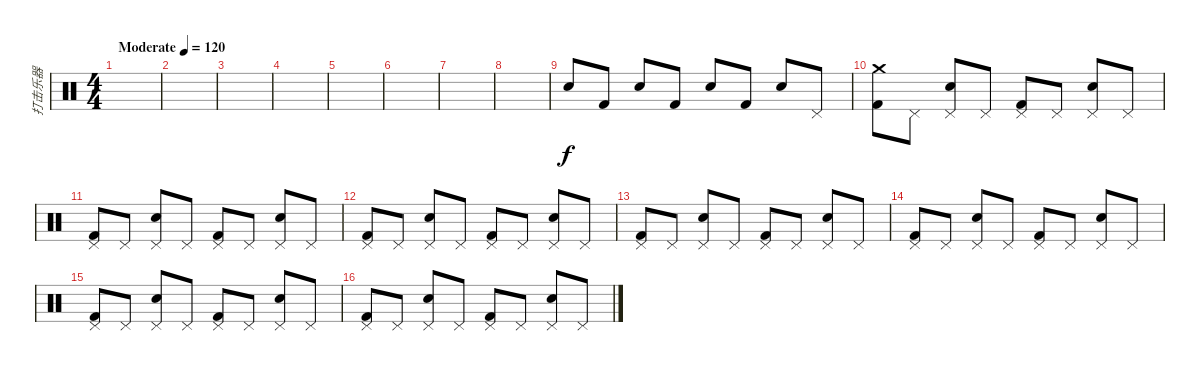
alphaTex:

\track ("打击乐器" "打击乐器") {instrument percussion}
\staff {score}
\articulation defaults
\ts (4 4)
\tempo (120 "Moderate")
\clef neutral
\ks c
|
|
|
|
|
|
|
|
"Electric Snare (hit)".8 "Kick (hit) 2".8 "Electric Snare (hit)".8 "Kick (hit) 2".8 "Electric Snare (hit)".8 "Kick (hit) 2".8 "Electric Snare (hit)".8 "Pedal Hi-Hat (hit)".8 |
("Crash medium (hit)" "Kick (hit) 2").8 "Pedal Hi-Hat (hit)".8 ("Pedal Hi-Hat (hit)" "Electric Snare (hit)").8 "Pedal Hi-Hat (hit)".8 ("Pedal Hi-Hat (hit)" "Kick (hit) 2").8 "Pedal Hi-Hat (hit)".8 ("Pedal Hi-Hat (hit)" "Electric Snare (hit)").8 "Pedal Hi-Hat (hit)".8 |
("Pedal Hi-Hat (hit)" "Kick (hit) 2").8 "Pedal Hi-Hat (hit)".8 ("Pedal Hi-Hat (hit)" "Electric Snare (hit)").8 "Pedal Hi-Hat (hit)".8 ("Pedal Hi-Hat (hit)" "Kick (hit) 2").8 "Pedal Hi-Hat (hit)".8 ("Pedal Hi-Hat (hit)" "Electric Snare (hit)").8 "Pedal Hi-Hat (hit)".8 |
("Pedal Hi-Hat (hit)" "Kick (hit) 2").8 "Pedal Hi-Hat (hit)".8 ("Pedal Hi-Hat (hit)" "Electric Snare (hit)").8 "Pedal Hi-Hat (hit)".8 ("Pedal Hi-Hat (hit)" "Kick (hit) 2").8 "Pedal Hi-Hat (hit)".8 ("Pedal Hi-Hat (hit)" "Electric Snare (hit)").8 "Pedal Hi-Hat (hit)".8 |
("Pedal Hi-Hat (hit)" "Kick (hit) 2").8 "Pedal Hi-Hat (hit)".8 ("Pedal Hi-Hat (hit)" "Electric Snare (hit)").8 "Pedal Hi-Hat (hit)".8 ("Pedal Hi-Hat (hit)" "Kick (hit) 2").8 "Pedal Hi-Hat (hit)".8 ("Pedal Hi-Hat (hit)" "Electric Snare (hit)").8 "Pedal Hi-Hat (hit)".8 |
("Pedal Hi-Hat (hit)" "Kick (hit) 2").8 "Pedal Hi-Hat (hit)".8 ("Pedal Hi-Hat (hit)" "Electric Snare (hit)").8 "Pedal Hi-Hat (hit)".8 ("Pedal Hi-Hat (hit)" "Kick (hit) 2").8 "Pedal Hi-Hat (hit)".8 ("Pedal Hi-Hat (hit)" "Electric Snare (hit)").8 "Pedal Hi-Hat (hit)".8 |
("Pedal Hi-Hat (hit)" "Kick (hit) 2").8 "Pedal Hi-Hat (hit)".8 ("Pedal Hi-Hat (hit)" "Electric Snare (hit)").8 "Pedal Hi-Hat (hit)".8 ("Pedal Hi-Hat (hit)" "Kick (hit) 2").8 "Pedal Hi-Hat (hit)".8 ("Pedal Hi-Hat (hit)" "Electric Snare (hit)").8 "Pedal Hi-Hat (hit)".8 |
("Pedal Hi-Hat (hit)" "Kick (hit) 2").8 "Pedal Hi-Hat (hit)".8 ("Pedal Hi-Hat (hit)" "Electric Snare (hit)").8 "Pedal Hi-Hat (hit)".8 ("Pedal Hi-Hat (hit)" "Kick (hit) 2").8 "Pedal Hi-Hat (hit)".8 ("Pedal Hi-Hat (hit)" "Electric Snare (hit)").8 "Pedal Hi-Hat (hit)".8
